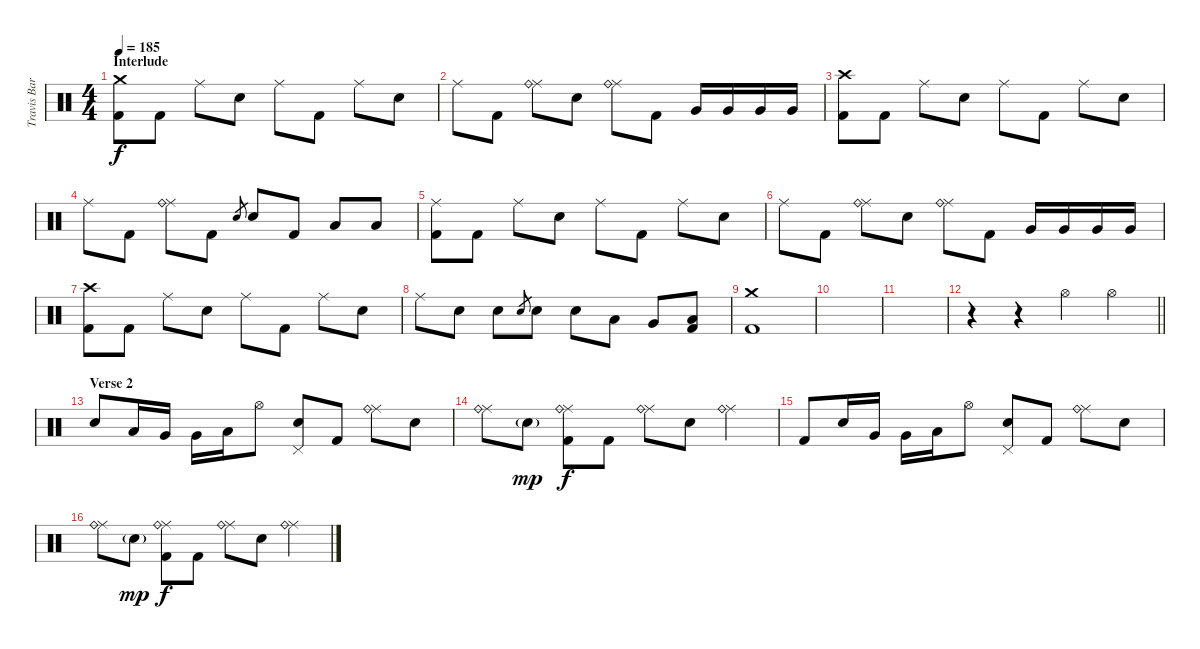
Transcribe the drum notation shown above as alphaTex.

\track ("Travis Barker - Drums" "Travis Bar") {instrument percussion}
\staff {score}
\articulation defaults
\ts (4 4)
\section ("" "Interlude")
\tempo 185
\clef neutral
\ks c
("Crash medium (hit)" "Kick (hit) 2").8{dy f} "Kick (hit) 2".8 "Ride (middle)".8 "Electric Snare (hit)".8 "Ride (middle)".8 "Kick (hit) 2".8 "Ride (middle)".8 "Electric Snare (hit)".8 |
"Ride (middle)".8 "Kick (hit) 2".8 ("Ride (middle)" "Ride (bell)").8 "Electric Snare (hit)".8 ("Ride (middle)" "Ride (bell)").8 "Kick (hit) 2".8 "Very Low Tom (hit)".16 "Very Low Tom (hit)".16 "Very Low Tom (hit)".16 "Very Low Tom (hit)".16 |
("Crash high (hit)" "Kick (hit) 2").8 "Kick (hit) 2".8 "Ride (middle)".8 "Electric Snare (hit)".8 "Ride (middle)".8 "Kick (hit) 2".8 "Ride (middle)".8 "Electric Snare (hit)".8 |
"Ride (middle)".8 "Kick (hit) 2".8 ("Ride (middle)" "Ride (bell)").8 "Kick (hit) 2".8 "Electric Snare (hit)".8{gr} "Electric Snare (hit)".8 "Kick (hit) 2".8 "Low Tom (hit)".8 "Low Tom (hit)".8 |
("Ride (middle)" "Kick (hit) 2").8 "Kick (hit) 2".8 "Ride (middle)".8 "Electric Snare (hit)".8 "Ride (middle)".8 "Kick (hit) 2".8 "Ride (middle)".8 "Electric Snare (hit)".8 |
"Ride (middle)".8 "Kick (hit) 2".8 ("Ride (middle)" "Ride (bell)").8 "Electric Snare (hit)".8 ("Ride (middle)" "Ride (bell)").8 "Kick (hit) 2".8 "Very Low Tom (hit)".16 "Very Low Tom (hit)".16 "Very Low Tom (hit)".16 "Very Low Tom (hit)".16 |
("Crash high (hit)" "Kick (hit) 2").8 "Kick (hit) 2".8 "Ride (middle)".8 "Electric Snare (hit)".8 "Ride (middle)".8 "Kick (hit) 2".8 "Ride (middle)".8 "Electric Snare (hit)".8 |
"Ride (middle)".8 "Electric Snare (hit)".8 "Electric Snare (hit)".8 "Electric Snare (hit)".8{gr} "Electric Snare (hit)".8 "Electric Snare (hit)".8 "Low Tom (hit)".8 "Very Low Tom (hit)".8 ("Low Floor Tom (hit)" "Kick (hit) 2").8 |
("Crash medium (hit)" "Kick (hit) 2").1 |
|
|
\barLineRight lightlight
r.4 r.4 "Hi-Hat (open)".4 "Hi-Hat (open)".4 |
\section ("" "Verse 2")
"Electric Snare (hit)".8 "Low Tom (hit)".16 "Very Low Tom (hit)".16 "Very Low Tom (hit)".16 "Low Floor Tom (hit)".16 "Hi-Hat (open)".8 ("Pedal Hi-Hat (hit)" "Electric Snare (hit)").8 "Kick (hit) 2".8 ("Ride (middle)" "Ride (bell)").8 "Electric Snare (hit)".8 |
("Ride (middle)" "Ride (bell)").8 "Electric Snare (hit)"{g}.8{dy mp} ("Ride (middle)" "Ride (bell)" "Kick (hit) 2").8{dy f} "Kick (hit) 2".8 ("Ride (middle)" "Ride (bell)").8 "Electric Snare (hit)".8 ("Ride (middle)" "Ride (bell)").4 |
"Kick (hit) 2".8 "Electric Snare (hit)".16 "Very Low Tom (hit)".16 "Very Low Tom (hit)".16 "Low Floor Tom (hit)".16 "Hi-Hat (open)".8 ("Pedal Hi-Hat (hit)" "Electric Snare (hit)").8 "Kick (hit) 2".8 ("Ride (middle)" "Ride (bell)").8 "Electric Snare (hit)".8 |
("Ride (middle)" "Ride (bell)").8 "Electric Snare (hit)"{g}.8{dy mp} ("Ride (middle)" "Ride (bell)" "Kick (hit) 2").8{dy f} "Kick (hit) 2".8 ("Ride (middle)" "Ride (bell)").8 "Electric Snare (hit)".8 ("Ride (middle)" "Ride (bell)").4
